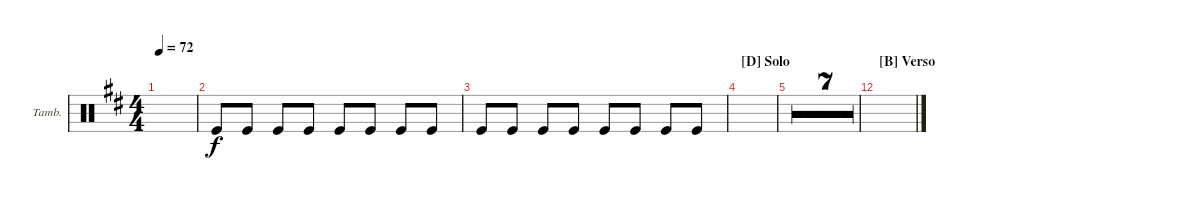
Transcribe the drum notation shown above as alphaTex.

\defaultSystemsLayout 4
\bracketExtendMode groupsimilarinstruments
\firstSystemTrackNameOrientation horizontal
\otherSystemsTrackNameOrientation horizontal
\track ("Tambourine" "Tamb.") {multiBarRest instrument percussion}
\staff {score}
\articulation defaults
\ts (4 4)
\tempo 72
\clef neutral
\ks d
|
"Kick (hit)".8 "Kick (hit)".8 "Kick (hit)".8 "Kick (hit)".8 "Kick (hit)".8 "Kick (hit)".8 "Kick (hit)".8 "Kick (hit)".8 |
"Kick (hit)".8 "Kick (hit)".8 "Kick (hit)".8 "Kick (hit)".8 "Kick (hit)".8 "Kick (hit)".8 "Kick (hit)".8 "Kick (hit)".8 |
\section ("D" "Solo")
|
|
|
|
|
|
|
|
\section ("B" "Verso")
